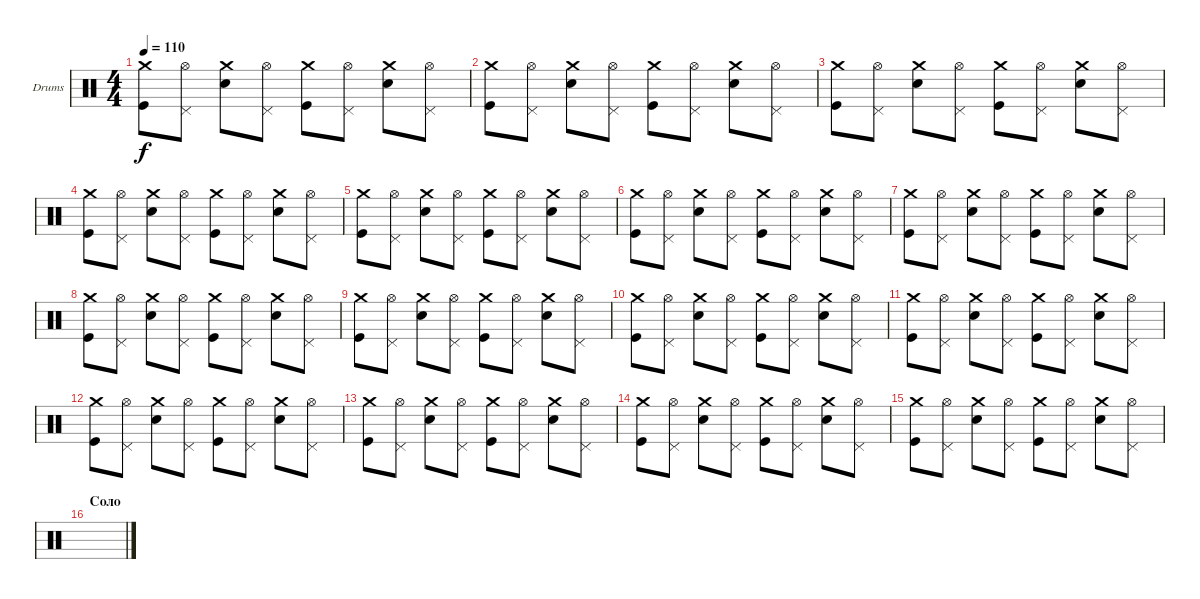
\defaultSystemsLayout 4
\bracketExtendMode groupsimilarinstruments
\firstSystemTrackNameOrientation horizontal
\otherSystemsTrackNameOrientation horizontal
\track ("Е. Кулаков" "Drums") {instrument percussion}
\staff {score}
\articulation defaults
\ts (4 4)
\tempo 110
\clef neutral
\ks c
("Kick (hit)" "Crash medium (hit)").8{dy f} ("Pedal Hi-Hat (hit)" "Hi-Hat (open)").8 ("Snare (hit) 2" "Crash medium (hit)").8 ("Pedal Hi-Hat (hit)" "Hi-Hat (open)").8 ("Kick (hit)" "Crash medium (hit)").8 ("Pedal Hi-Hat (hit)" "Hi-Hat (open)").8 ("Snare (hit) 2" "Crash medium (hit)").8 ("Pedal Hi-Hat (hit)" "Hi-Hat (open)").8 |
("Kick (hit)" "Crash medium (hit)").8 ("Pedal Hi-Hat (hit)" "Hi-Hat (open)").8 ("Snare (hit) 2" "Crash medium (hit)").8 ("Pedal Hi-Hat (hit)" "Hi-Hat (open)").8 ("Kick (hit)" "Crash medium (hit)").8 ("Pedal Hi-Hat (hit)" "Hi-Hat (open)").8 ("Snare (hit) 2" "Crash medium (hit)").8 ("Pedal Hi-Hat (hit)" "Hi-Hat (open)").8 |
("Kick (hit)" "Crash medium (hit)").8 ("Pedal Hi-Hat (hit)" "Hi-Hat (open)").8 ("Snare (hit) 2" "Crash medium (hit)").8 ("Pedal Hi-Hat (hit)" "Hi-Hat (open)").8 ("Kick (hit)" "Crash medium (hit)").8 ("Pedal Hi-Hat (hit)" "Hi-Hat (open)").8 ("Snare (hit) 2" "Crash medium (hit)").8 ("Pedal Hi-Hat (hit)" "Hi-Hat (open)").8 |
("Kick (hit)" "Crash medium (hit)").8 ("Pedal Hi-Hat (hit)" "Hi-Hat (open)").8 ("Snare (hit) 2" "Crash medium (hit)").8 ("Pedal Hi-Hat (hit)" "Hi-Hat (open)").8 ("Kick (hit)" "Crash medium (hit)").8 ("Pedal Hi-Hat (hit)" "Hi-Hat (open)").8 ("Snare (hit) 2" "Crash medium (hit)").8 ("Pedal Hi-Hat (hit)" "Hi-Hat (open)").8 |
("Kick (hit)" "Crash medium (hit)").8 ("Pedal Hi-Hat (hit)" "Hi-Hat (open)").8 ("Snare (hit) 2" "Crash medium (hit)").8 ("Pedal Hi-Hat (hit)" "Hi-Hat (open)").8 ("Kick (hit)" "Crash medium (hit)").8 ("Pedal Hi-Hat (hit)" "Hi-Hat (open)").8 ("Snare (hit) 2" "Crash medium (hit)").8 ("Pedal Hi-Hat (hit)" "Hi-Hat (open)").8 |
("Kick (hit)" "Crash medium (hit)").8 ("Pedal Hi-Hat (hit)" "Hi-Hat (open)").8 ("Snare (hit) 2" "Crash medium (hit)").8 ("Pedal Hi-Hat (hit)" "Hi-Hat (open)").8 ("Kick (hit)" "Crash medium (hit)").8 ("Pedal Hi-Hat (hit)" "Hi-Hat (open)").8 ("Snare (hit) 2" "Crash medium (hit)").8 ("Pedal Hi-Hat (hit)" "Hi-Hat (open)").8 |
("Kick (hit)" "Crash medium (hit)").8 ("Pedal Hi-Hat (hit)" "Hi-Hat (open)").8 ("Snare (hit) 2" "Crash medium (hit)").8 ("Pedal Hi-Hat (hit)" "Hi-Hat (open)").8 ("Kick (hit)" "Crash medium (hit)").8 ("Pedal Hi-Hat (hit)" "Hi-Hat (open)").8 ("Snare (hit) 2" "Crash medium (hit)").8 ("Pedal Hi-Hat (hit)" "Hi-Hat (open)").8 |
("Kick (hit)" "Crash medium (hit)").8 ("Pedal Hi-Hat (hit)" "Hi-Hat (open)").8 ("Snare (hit) 2" "Crash medium (hit)").8 ("Pedal Hi-Hat (hit)" "Hi-Hat (open)").8 ("Kick (hit)" "Crash medium (hit)").8 ("Pedal Hi-Hat (hit)" "Hi-Hat (open)").8 ("Snare (hit) 2" "Crash medium (hit)").8 ("Pedal Hi-Hat (hit)" "Hi-Hat (open)").8 |
("Kick (hit)" "Crash medium (hit)").8 ("Pedal Hi-Hat (hit)" "Hi-Hat (open)").8 ("Snare (hit) 2" "Crash medium (hit)").8 ("Pedal Hi-Hat (hit)" "Hi-Hat (open)").8 ("Kick (hit)" "Crash medium (hit)").8 ("Pedal Hi-Hat (hit)" "Hi-Hat (open)").8 ("Snare (hit) 2" "Crash medium (hit)").8 ("Pedal Hi-Hat (hit)" "Hi-Hat (open)").8 |
("Kick (hit)" "Crash medium (hit)").8 ("Pedal Hi-Hat (hit)" "Hi-Hat (open)").8 ("Snare (hit) 2" "Crash medium (hit)").8 ("Pedal Hi-Hat (hit)" "Hi-Hat (open)").8 ("Kick (hit)" "Crash medium (hit)").8 ("Pedal Hi-Hat (hit)" "Hi-Hat (open)").8 ("Snare (hit) 2" "Crash medium (hit)").8 ("Pedal Hi-Hat (hit)" "Hi-Hat (open)").8 |
("Kick (hit)" "Crash medium (hit)").8 ("Pedal Hi-Hat (hit)" "Hi-Hat (open)").8 ("Snare (hit) 2" "Crash medium (hit)").8 ("Pedal Hi-Hat (hit)" "Hi-Hat (open)").8 ("Kick (hit)" "Crash medium (hit)").8 ("Pedal Hi-Hat (hit)" "Hi-Hat (open)").8 ("Snare (hit) 2" "Crash medium (hit)").8 ("Pedal Hi-Hat (hit)" "Hi-Hat (open)").8 |
("Kick (hit)" "Crash medium (hit)").8 ("Pedal Hi-Hat (hit)" "Hi-Hat (open)").8 ("Snare (hit) 2" "Crash medium (hit)").8 ("Pedal Hi-Hat (hit)" "Hi-Hat (open)").8 ("Kick (hit)" "Crash medium (hit)").8 ("Pedal Hi-Hat (hit)" "Hi-Hat (open)").8 ("Snare (hit) 2" "Crash medium (hit)").8 ("Pedal Hi-Hat (hit)" "Hi-Hat (open)").8 |
("Kick (hit)" "Crash medium (hit)").8 ("Pedal Hi-Hat (hit)" "Hi-Hat (open)").8 ("Snare (hit) 2" "Crash medium (hit)").8 ("Pedal Hi-Hat (hit)" "Hi-Hat (open)").8 ("Kick (hit)" "Crash medium (hit)").8 ("Pedal Hi-Hat (hit)" "Hi-Hat (open)").8 ("Snare (hit) 2" "Crash medium (hit)").8 ("Pedal Hi-Hat (hit)" "Hi-Hat (open)").8 |
("Kick (hit)" "Crash medium (hit)").8 ("Pedal Hi-Hat (hit)" "Hi-Hat (open)").8 ("Snare (hit) 2" "Crash medium (hit)").8 ("Pedal Hi-Hat (hit)" "Hi-Hat (open)").8 ("Kick (hit)" "Crash medium (hit)").8 ("Pedal Hi-Hat (hit)" "Hi-Hat (open)").8 ("Snare (hit) 2" "Crash medium (hit)").8 ("Pedal Hi-Hat (hit)" "Hi-Hat (open)").8 |
("Kick (hit)" "Crash medium (hit)").8 ("Pedal Hi-Hat (hit)" "Hi-Hat (open)").8 ("Snare (hit) 2" "Crash medium (hit)").8 ("Pedal Hi-Hat (hit)" "Hi-Hat (open)").8 ("Kick (hit)" "Crash medium (hit)").8 ("Pedal Hi-Hat (hit)" "Hi-Hat (open)").8 ("Snare (hit) 2" "Crash medium (hit)").8 ("Pedal Hi-Hat (hit)" "Hi-Hat (open)").8 |
\section ("" "Соло")
